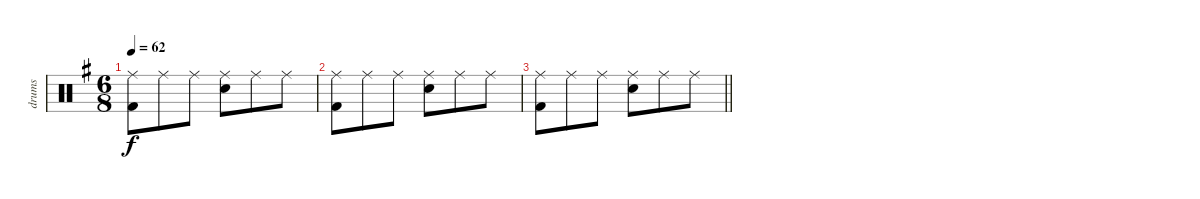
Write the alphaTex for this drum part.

\track ("drums" "drums") {instrument percussion}
\staff {score}
\articulation defaults
\ts (6 8)
\tempo 62
\clef neutral
\ks g
("Ride (middle)" "Kick (hit) 2").8{dy f} "Ride (middle)".8 "Ride (middle)".8 ("Ride (middle)" "Electric Snare (hit)").8 "Ride (middle)".8 "Ride (middle)".8 |
("Ride (middle)" "Kick (hit) 2").8 "Ride (middle)".8 "Ride (middle)".8 ("Ride (middle)" "Electric Snare (hit)").8 "Ride (middle)".8 "Ride (middle)".8 |
\barLineRight lightlight
("Ride (middle)" "Kick (hit) 2").8 "Ride (middle)".8 "Ride (middle)".8 ("Ride (middle)" "Electric Snare (hit)").8 "Ride (middle)".8 "Ride (middle)".8
